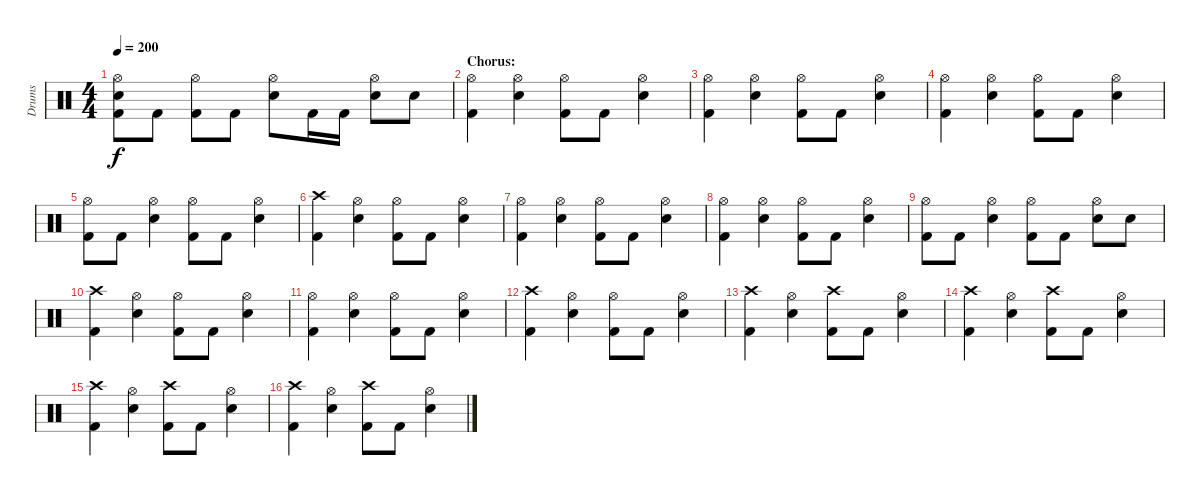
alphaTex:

\track ("Drums" "Drums") {instrument percussion}
\staff {score}
\articulation defaults
\ts (4 4)
\tempo 200
\clef neutral
\ks c
("Hi-Hat (open)" "Electric Snare (hit)" "Kick (hit) 2").8{dy f} "Kick (hit) 2".8 ("Hi-Hat (open)" "Kick (hit) 2").8 "Kick (hit) 2".8 ("Hi-Hat (open)" "Electric Snare (hit)").8 "Kick (hit) 2".16 "Kick (hit) 2".16 ("Hi-Hat (open)" "Electric Snare (hit)").8 "Electric Snare (hit)".8 |
\section ("" "Chorus:")
("Hi-Hat (open)" "Kick (hit) 2").4 ("Hi-Hat (open)" "Electric Snare (hit)").4 ("Hi-Hat (open)" "Kick (hit) 2").8 "Kick (hit) 2".8 ("Hi-Hat (open)" "Electric Snare (hit)").4 |
("Hi-Hat (open)" "Kick (hit) 2").4 ("Hi-Hat (open)" "Electric Snare (hit)").4 ("Hi-Hat (open)" "Kick (hit) 2").8 "Kick (hit) 2".8 ("Hi-Hat (open)" "Electric Snare (hit)").4 |
("Hi-Hat (open)" "Kick (hit) 2").4 ("Hi-Hat (open)" "Electric Snare (hit)").4 ("Hi-Hat (open)" "Kick (hit) 2").8 "Kick (hit) 2".8 ("Hi-Hat (open)" "Electric Snare (hit)").4 |
("Hi-Hat (open)" "Kick (hit) 2").8 "Kick (hit) 2".8 ("Hi-Hat (open)" "Electric Snare (hit)").4 ("Hi-Hat (open)" "Kick (hit) 2").8 "Kick (hit) 2".8 ("Hi-Hat (open)" "Electric Snare (hit)").4 |
("Crash high (hit)" "Kick (hit) 2").4 ("Hi-Hat (open)" "Electric Snare (hit)").4 ("Hi-Hat (open)" "Kick (hit) 2").8 "Kick (hit) 2".8 ("Hi-Hat (open)" "Electric Snare (hit)").4 |
("Hi-Hat (open)" "Kick (hit) 2").4 ("Hi-Hat (open)" "Electric Snare (hit)").4 ("Hi-Hat (open)" "Kick (hit) 2").8 "Kick (hit) 2".8 ("Hi-Hat (open)" "Electric Snare (hit)").4 |
("Hi-Hat (open)" "Kick (hit) 2").4 ("Hi-Hat (open)" "Electric Snare (hit)").4 ("Hi-Hat (open)" "Kick (hit) 2").8 "Kick (hit) 2".8 ("Hi-Hat (open)" "Electric Snare (hit)").4 |
("Hi-Hat (open)" "Kick (hit) 2").8 "Kick (hit) 2".8 ("Hi-Hat (open)" "Electric Snare (hit)").4 ("Hi-Hat (open)" "Kick (hit) 2").8 "Kick (hit) 2".8 ("Hi-Hat (open)" "Electric Snare (hit)").8 "Electric Snare (hit)".8 |
("Crash high (hit)" "Kick (hit) 2").4 ("Hi-Hat (open)" "Electric Snare (hit)").4 ("Hi-Hat (open)" "Kick (hit) 2").8 "Kick (hit) 2".8 ("Hi-Hat (open)" "Electric Snare (hit)").4 |
("Hi-Hat (open)" "Kick (hit) 2").4 ("Hi-Hat (open)" "Electric Snare (hit)").4 ("Hi-Hat (open)" "Kick (hit) 2").8 "Kick (hit) 2".8 ("Hi-Hat (open)" "Electric Snare (hit)").4 |
("Crash high (hit)" "Kick (hit) 2").4 ("Hi-Hat (open)" "Electric Snare (hit)").4 ("Hi-Hat (open)" "Kick (hit) 2").8 "Kick (hit) 2".8 ("Hi-Hat (open)" "Electric Snare (hit)").4 |
("Crash high (hit)" "Kick (hit) 2").4 ("Hi-Hat (open)" "Electric Snare (hit)").4 ("Crash high (hit)" "Kick (hit) 2").8 "Kick (hit) 2".8 ("Hi-Hat (open)" "Electric Snare (hit)").4 |
("Crash high (hit)" "Kick (hit) 2").4 ("Hi-Hat (open)" "Electric Snare (hit)").4 ("Crash high (hit)" "Kick (hit) 2").8 "Kick (hit) 2".8 ("Hi-Hat (open)" "Electric Snare (hit)").4 |
("Crash high (hit)" "Kick (hit) 2").4 ("Hi-Hat (open)" "Electric Snare (hit)").4 ("Crash high (hit)" "Kick (hit) 2").8 "Kick (hit) 2".8 ("Hi-Hat (open)" "Electric Snare (hit)").4 |
("Crash high (hit)" "Kick (hit) 2").4 ("Hi-Hat (open)" "Electric Snare (hit)").4 ("Crash high (hit)" "Kick (hit) 2").8 "Kick (hit) 2".8 ("Hi-Hat (open)" "Electric Snare (hit)").4
